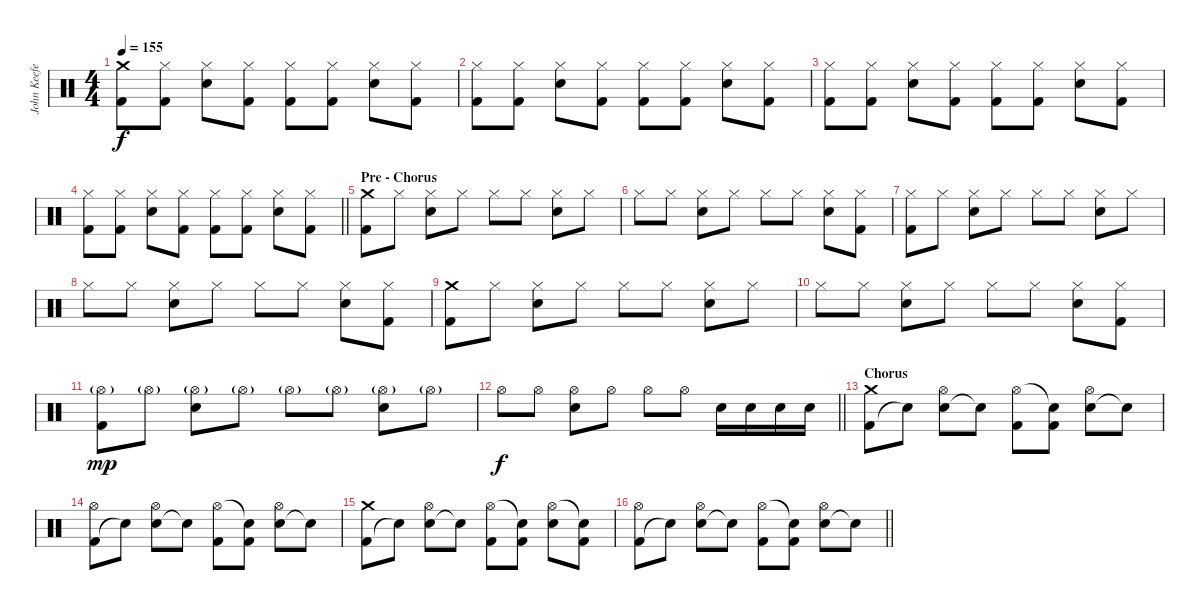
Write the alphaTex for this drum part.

\track ("John Keefe (Percussion)" "John Keefe") {instrument percussion}
\staff {score}
\articulation defaults
\ts (4 4)
\tempo 155
\clef neutral
\ks c
("Kick (hit) 2" "Crash medium (hit)").8{dy f} ("Kick (hit) 2" "Hi-Hat (closed)").8 ("Electric Snare (hit)" "Hi-Hat (closed)").8 ("Kick (hit) 2" "Hi-Hat (closed)").8 ("Kick (hit) 2" "Hi-Hat (closed)").8 ("Kick (hit) 2" "Hi-Hat (closed)").8 ("Electric Snare (hit)" "Hi-Hat (closed)").8 ("Kick (hit) 2" "Hi-Hat (closed)").8 |
("Kick (hit) 2" "Hi-Hat (closed)").8 ("Kick (hit) 2" "Hi-Hat (closed)").8 ("Electric Snare (hit)" "Hi-Hat (closed)").8 ("Kick (hit) 2" "Hi-Hat (closed)").8 ("Kick (hit) 2" "Hi-Hat (closed)").8 ("Kick (hit) 2" "Hi-Hat (closed)").8 ("Electric Snare (hit)" "Hi-Hat (closed)").8 ("Kick (hit) 2" "Hi-Hat (closed)").8 |
("Kick (hit) 2" "Hi-Hat (closed)").8 ("Kick (hit) 2" "Hi-Hat (closed)").8 ("Electric Snare (hit)" "Hi-Hat (closed)").8 ("Kick (hit) 2" "Hi-Hat (closed)").8 ("Kick (hit) 2" "Hi-Hat (closed)").8 ("Kick (hit) 2" "Hi-Hat (closed)").8 ("Electric Snare (hit)" "Hi-Hat (closed)").8 ("Kick (hit) 2" "Hi-Hat (closed)").8 |
\barLineRight lightlight
("Kick (hit) 2" "Hi-Hat (closed)").8 ("Kick (hit) 2" "Hi-Hat (closed)").8 ("Electric Snare (hit)" "Hi-Hat (closed)").8 ("Kick (hit) 2" "Hi-Hat (closed)").8 ("Kick (hit) 2" "Hi-Hat (closed)").8 ("Kick (hit) 2" "Hi-Hat (closed)").8 ("Electric Snare (hit)" "Hi-Hat (closed)").8 ("Kick (hit) 2" "Hi-Hat (closed)").8 |
\section ("" "Pre - Chorus")
("Kick (hit) 2" "Crash medium (hit)").8 "Hi-Hat (closed)".8 ("Electric Snare (hit)" "Hi-Hat (closed)").8 "Hi-Hat (closed)".8 "Hi-Hat (closed)".8 "Hi-Hat (closed)".8 ("Electric Snare (hit)" "Hi-Hat (closed)").8 "Hi-Hat (closed)".8 |
"Hi-Hat (closed)".8 "Hi-Hat (closed)".8 ("Electric Snare (hit)" "Hi-Hat (closed)").8 "Hi-Hat (closed)".8 "Hi-Hat (closed)".8 "Hi-Hat (closed)".8 ("Electric Snare (hit)" "Hi-Hat (closed)").8 ("Kick (hit) 2" "Hi-Hat (closed)").8 |
("Kick (hit) 2" "Hi-Hat (closed)").8 "Hi-Hat (closed)".8 ("Electric Snare (hit)" "Hi-Hat (closed)").8 "Hi-Hat (closed)".8 "Hi-Hat (closed)".8 "Hi-Hat (closed)".8 ("Electric Snare (hit)" "Hi-Hat (closed)").8 "Hi-Hat (closed)".8 |
"Hi-Hat (closed)".8 "Hi-Hat (closed)".8 ("Electric Snare (hit)" "Hi-Hat (closed)").8 "Hi-Hat (closed)".8 "Hi-Hat (closed)".8 "Hi-Hat (closed)".8 ("Electric Snare (hit)" "Hi-Hat (closed)").8 ("Kick (hit) 2" "Hi-Hat (closed)").8 |
("Kick (hit) 2" "Crash medium (hit)").8 "Hi-Hat (closed)".8 ("Electric Snare (hit)" "Hi-Hat (closed)").8 "Hi-Hat (closed)".8 "Hi-Hat (closed)".8 "Hi-Hat (closed)".8 ("Electric Snare (hit)" "Hi-Hat (closed)").8 "Hi-Hat (closed)".8 |
"Hi-Hat (closed)".8 "Hi-Hat (closed)".8 ("Electric Snare (hit)" "Hi-Hat (closed)").8 "Hi-Hat (closed)".8 "Hi-Hat (closed)".8 "Hi-Hat (closed)".8 ("Electric Snare (hit)" "Hi-Hat (closed)").8 ("Kick (hit) 2" "Hi-Hat (closed)").8 |
("Kick (hit) 2" "Hi-Hat (open)"{g}).8{dy mp} "Hi-Hat (open)"{g}.8 ("Electric Snare (hit)" "Hi-Hat (open)"{g}).8 "Hi-Hat (open)"{g}.8 "Hi-Hat (open)"{g}.8 "Hi-Hat (open)"{g}.8 ("Electric Snare (hit)" "Hi-Hat (open)"{g}).8 "Hi-Hat (open)"{g}.8 |
\barLineRight lightlight "Hi-Hat (open)".8{dy f} "Hi-Hat (open)".8
("Electric Snare (hit)" "Hi-Hat (open)").8 "Hi-Hat (open)".8 "Hi-Hat (open)".8 "Hi-Hat (open)".8 "Electric Snare (hit)".16 "Electric Snare (hit)".16 "Electric Snare (hit)".16 "Electric Snare (hit)".16 |
\section ("" "Chorus")
("Kick (hit) 2" "Crash medium (hit)").8 "Snare (hit)"{t}.8 ("Electric Snare (hit)" "Hi-Hat (open)").8 "Snare (hit)"{t}.8 ("Kick (hit) 2" "Hi-Hat (open)").8 ("Kick (hit) 2" "Snare (hit)"{t}).8 ("Electric Snare (hit)" "Hi-Hat (open)").8 "Snare (hit)"{t}.8 |
("Kick (hit) 2" "Hi-Hat (open)").8 "Snare (hit)"{t}.8 ("Electric Snare (hit)" "Hi-Hat (open)").8 "Snare (hit)"{t}.8 ("Kick (hit) 2" "Hi-Hat (open)").8 ("Kick (hit) 2" "Snare (hit)"{t}).8 ("Electric Snare (hit)" "Hi-Hat (open)").8 "Snare (hit)"{t}.8 |
("Kick (hit) 2" "Crash medium (hit)").8 "Snare (hit)"{t}.8 ("Electric Snare (hit)" "Hi-Hat (open)").8 "Snare (hit)"{t}.8 ("Kick (hit) 2" "Hi-Hat (open)").8 ("Kick (hit) 2" "Snare (hit)"{t}).8 ("Electric Snare (hit)" "Hi-Hat (open)").8 ("Kick (hit) 2" "Snare (hit)"{t}).8 |
\barLineRight lightlight
("Kick (hit) 2" "Hi-Hat (open)").8 "Snare (hit)"{t}.8 ("Electric Snare (hit)" "Hi-Hat (open)").8 "Snare (hit)"{t}.8 ("Kick (hit) 2" "Hi-Hat (open)").8 ("Kick (hit) 2" "Snare (hit)"{t}).8 ("Electric Snare (hit)" "Hi-Hat (open)").8 "Snare (hit)"{t}.8
